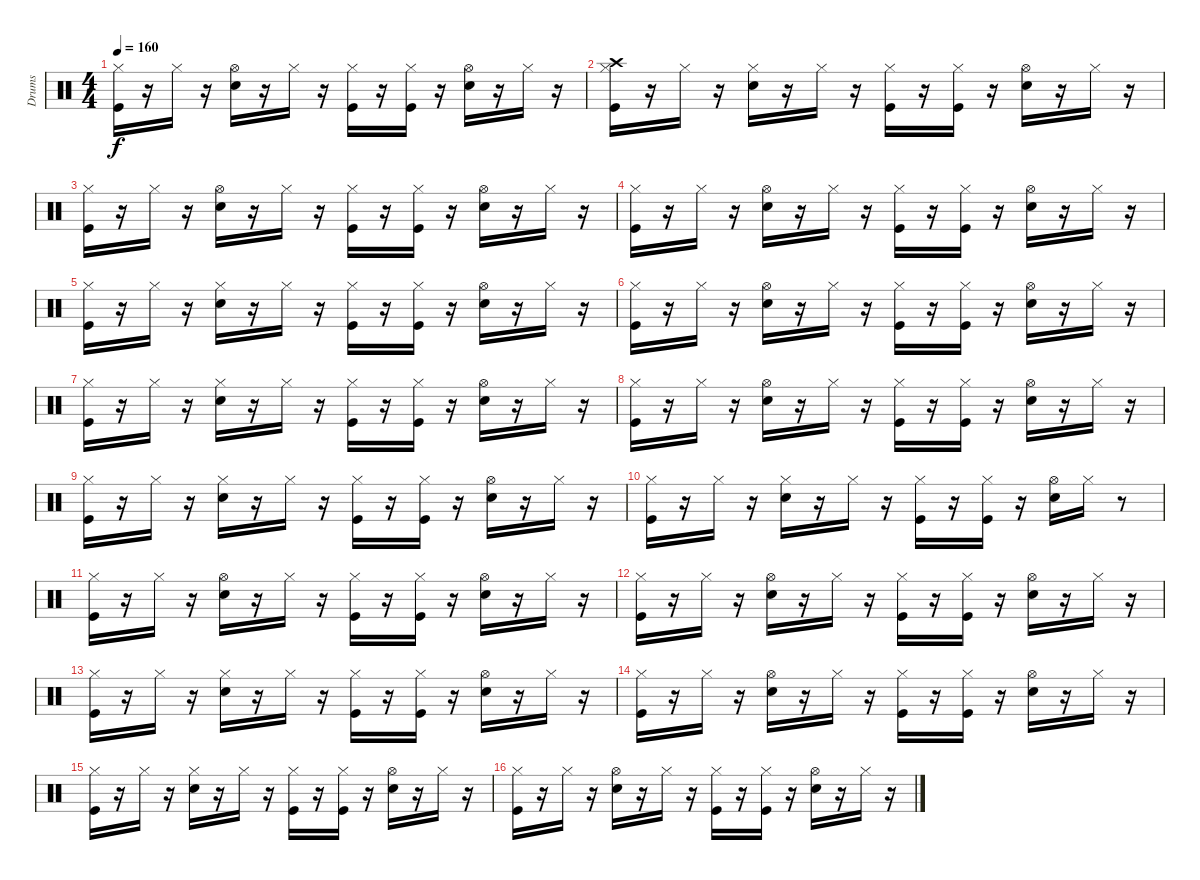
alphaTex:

\track ("Drums" "Drums") {instrument percussion}
\staff {score}
\articulation defaults
\ts (4 4)
\tempo 160
\clef neutral
\ks c
("Hi-Hat (closed)" "Kick (hit)").16{dy f} r.16 "Hi-Hat (closed)".16 r.16 ("Hi-Hat (open)" "Snare (hit) 2").16 r.16 "Hi-Hat (closed)".16 r.16 ("Hi-Hat (closed)" "Kick (hit)").16 r.16 ("Kick (hit)" "Hi-Hat (closed)").16 r.16 ("Hi-Hat (open)" "Snare (hit) 2").16 r.16 "Hi-Hat (closed)".16 r.16 |
("Crash high (hit)" "Hi-Hat (closed)" "Kick (hit)").16 r.16 "Hi-Hat (closed)".16 r.16 ("Hi-Hat (closed)" "Snare (hit) 2").16 r.16 "Hi-Hat (closed)".16 r.16 ("Hi-Hat (closed)" "Kick (hit)").16 r.16 ("Kick (hit)" "Hi-Hat (closed)").16 r.16 ("Hi-Hat (open)" "Snare (hit) 2").16 r.16 "Hi-Hat (closed)".16 r.16 |
("Hi-Hat (closed)" "Kick (hit)").16 r.16 "Hi-Hat (closed)".16 r.16 ("Hi-Hat (open)" "Snare (hit) 2").16 r.16 "Hi-Hat (closed)".16 r.16 ("Hi-Hat (closed)" "Kick (hit)").16 r.16 ("Kick (hit)" "Hi-Hat (closed)").16 r.16 ("Hi-Hat (open)" "Snare (hit) 2").16 r.16 "Hi-Hat (closed)".16 r.16 |
("Hi-Hat (closed)" "Kick (hit)").16 r.16 "Hi-Hat (closed)".16 r.16 ("Hi-Hat (open)" "Snare (hit) 2").16 r.16 "Hi-Hat (closed)".16 r.16 ("Hi-Hat (closed)" "Kick (hit)").16 r.16 ("Kick (hit)" "Hi-Hat (closed)").16 r.16 ("Hi-Hat (open)" "Snare (hit) 2").16 r.16 "Hi-Hat (closed)".16 r.16 |
("Hi-Hat (closed)" "Kick (hit)").16 r.16 "Hi-Hat (closed)".16 r.16 ("Hi-Hat (closed)" "Snare (hit) 2").16 r.16 "Hi-Hat (closed)".16 r.16 ("Hi-Hat (closed)" "Kick (hit)").16 r.16 ("Kick (hit)" "Hi-Hat (closed)").16 r.16 ("Hi-Hat (open)" "Snare (hit) 2").16 r.16 "Hi-Hat (closed)".16 r.16 |
("Hi-Hat (closed)" "Kick (hit)").16 r.16 "Hi-Hat (closed)".16 r.16 ("Hi-Hat (open)" "Snare (hit) 2").16 r.16 "Hi-Hat (closed)".16 r.16 ("Hi-Hat (closed)" "Kick (hit)").16 r.16 ("Kick (hit)" "Hi-Hat (closed)").16 r.16 ("Hi-Hat (open)" "Snare (hit) 2").16 r.16 "Hi-Hat (closed)".16 r.16 |
("Hi-Hat (closed)" "Kick (hit)").16 r.16 "Hi-Hat (closed)".16 r.16 ("Hi-Hat (closed)" "Snare (hit) 2").16 r.16 "Hi-Hat (closed)".16 r.16 ("Hi-Hat (closed)" "Kick (hit)").16 r.16 ("Kick (hit)" "Hi-Hat (closed)").16 r.16 ("Hi-Hat (open)" "Snare (hit) 2").16 r.16 "Hi-Hat (closed)".16 r.16 |
("Hi-Hat (closed)" "Kick (hit)").16 r.16 "Hi-Hat (closed)".16 r.16 ("Hi-Hat (open)" "Snare (hit) 2").16 r.16 "Hi-Hat (closed)".16 r.16 ("Hi-Hat (closed)" "Kick (hit)").16 r.16 ("Kick (hit)" "Hi-Hat (closed)").16 r.16 ("Hi-Hat (open)" "Snare (hit) 2").16 r.16 "Hi-Hat (closed)".16 r.16 |
("Hi-Hat (closed)" "Kick (hit)").16 r.16 "Hi-Hat (closed)".16 r.16 ("Hi-Hat (closed)" "Snare (hit) 2").16 r.16 "Hi-Hat (closed)".16 r.16 ("Hi-Hat (closed)" "Kick (hit)").16 r.16 ("Kick (hit)" "Hi-Hat (closed)").16 r.16 ("Hi-Hat (open)" "Snare (hit) 2").16 r.16 "Hi-Hat (closed)".16 r.16 |
("Hi-Hat (closed)" "Kick (hit)").16 r.16 "Hi-Hat (closed)".16 r.16 ("Hi-Hat (closed)" "Snare (hit) 2").16 r.16 "Hi-Hat (closed)".16 r.16 ("Hi-Hat (closed)" "Kick (hit)").16 r.16 ("Kick (hit)" "Hi-Hat (closed)").16 r.16 ("Hi-Hat (open)" "Snare (hit) 2").16 "Hi-Hat (closed)".16 r.8 |
("Hi-Hat (closed)" "Kick (hit)").16 r.16 "Hi-Hat (closed)".16 r.16 ("Hi-Hat (open)" "Snare (hit) 2").16 r.16 "Hi-Hat (closed)".16 r.16 ("Hi-Hat (closed)" "Kick (hit)").16 r.16 ("Kick (hit)" "Hi-Hat (closed)").16 r.16 ("Hi-Hat (open)" "Snare (hit) 2").16 r.16 "Hi-Hat (closed)".16 r.16 |
("Hi-Hat (closed)" "Kick (hit)").16 r.16 "Hi-Hat (closed)".16 r.16 ("Hi-Hat (open)" "Snare (hit) 2").16 r.16 "Hi-Hat (closed)".16 r.16 ("Hi-Hat (closed)" "Kick (hit)").16 r.16 ("Kick (hit)" "Hi-Hat (closed)").16 r.16 ("Hi-Hat (open)" "Snare (hit) 2").16 r.16 "Hi-Hat (closed)".16 r.16 |
("Hi-Hat (closed)" "Kick (hit)").16 r.16 "Hi-Hat (closed)".16 r.16 ("Hi-Hat (closed)" "Snare (hit) 2").16 r.16 "Hi-Hat (closed)".16 r.16 ("Hi-Hat (closed)" "Kick (hit)").16 r.16 ("Kick (hit)" "Hi-Hat (closed)").16 r.16 ("Hi-Hat (open)" "Snare (hit) 2").16 r.16 "Hi-Hat (closed)".16 r.16 |
("Hi-Hat (closed)" "Kick (hit)").16 r.16 "Hi-Hat (closed)".16 r.16 ("Hi-Hat (open)" "Snare (hit) 2").16 r.16 "Hi-Hat (closed)".16 r.16 ("Hi-Hat (closed)" "Kick (hit)").16 r.16 ("Kick (hit)" "Hi-Hat (closed)").16 r.16 ("Hi-Hat (open)" "Snare (hit) 2").16 r.16 "Hi-Hat (closed)".16 r.16 |
("Hi-Hat (closed)" "Kick (hit)").16 r.16 "Hi-Hat (closed)".16 r.16 ("Hi-Hat (closed)" "Snare (hit) 2").16 r.16 "Hi-Hat (closed)".16 r.16 ("Hi-Hat (closed)" "Kick (hit)").16 r.16 ("Kick (hit)" "Hi-Hat (closed)").16 r.16 ("Hi-Hat (open)" "Snare (hit) 2").16 r.16 "Hi-Hat (closed)".16 r.16 |
("Hi-Hat (closed)" "Kick (hit)").16 r.16 "Hi-Hat (closed)".16 r.16 ("Hi-Hat (open)" "Snare (hit) 2").16 r.16 "Hi-Hat (closed)".16 r.16 ("Hi-Hat (closed)" "Kick (hit)").16 r.16 ("Kick (hit)" "Hi-Hat (closed)").16 r.16 ("Hi-Hat (open)" "Snare (hit) 2").16 r.16 "Hi-Hat (closed)".16 r.16
